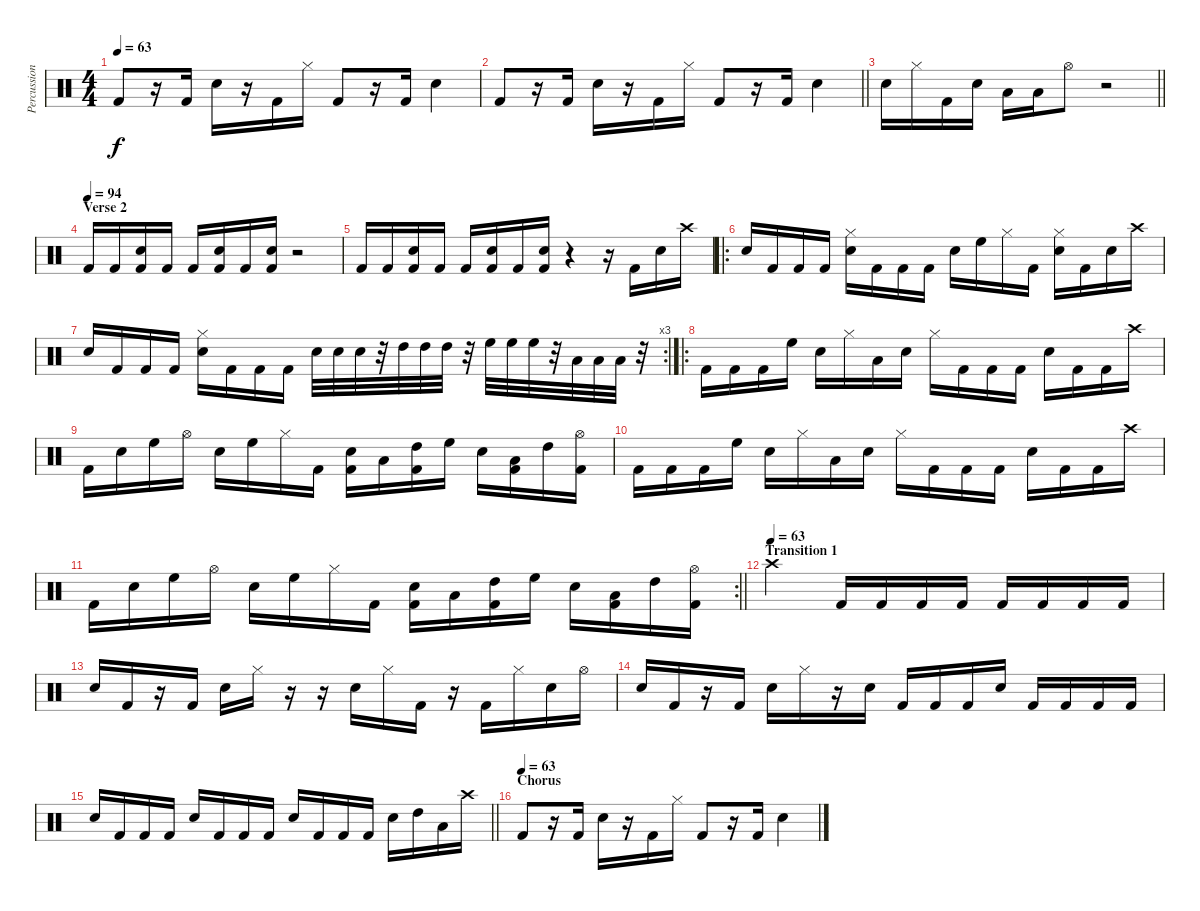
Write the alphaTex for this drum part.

\track ("Percussion" "Percussion") {instrument percussion}
\staff {score}
\articulation defaults
\ts (4 4)
\tempo 63
\clef neutral
\ks c "Kick (hit) 2".8{dy f}
r.16 "Kick (hit) 2".16 "Snare (hit) 2".16 r.16 "Kick (hit) 2".16 "Hi-Hat (closed)".16 "Kick (hit) 2".8 r.16 "Kick (hit) 2".16 "Snare (hit) 2".4 |
\barLineRight lightlight "Kick (hit) 2".8
r.16 "Kick (hit) 2".16 "Snare (hit) 2".16 r.16 "Kick (hit) 2".16 "Hi-Hat (closed)".16 "Kick (hit) 2".8 r.16 "Kick (hit) 2".16 "Snare (hit) 2".4 |
\barLineRight lightlight "Snare (hit) 2".16 "Hi-Hat (closed)".16 "Kick (hit) 2".16 "Snare (hit) 2".16 "Low Tom (hit)".16 "Low Tom (hit)".16 "Hi-Hat (open)".8
r.2 |
\section ("" "Verse 2")
\tempo (94)
"Kick (hit) 2".16 "Kick (hit) 2".16 ("Snare (hit) 2" "Kick (hit) 2").16 "Kick (hit) 2".16 "Kick (hit) 2".16 ("Snare (hit) 2" "Kick (hit) 2").16 "Kick (hit) 2".16 ("Snare (hit) 2" "Kick (hit) 2").16 r.2 |
"Kick (hit) 2".16 "Kick (hit) 2".16 ("Snare (hit) 2" "Kick (hit) 2").16 "Kick (hit) 2".16 "Kick (hit) 2".16 ("Snare (hit) 2" "Kick (hit) 2").16 "Kick (hit) 2".16 ("Snare (hit) 2" "Kick (hit) 2").16 r.4 r.16 "Kick (hit) 2".16 "Snare (hit) 2".16 "Crash high (hit)".16 |
\ro "Snare (hit) 2".16 "Kick (hit) 2".16 "Kick (hit) 2".16 "Kick (hit) 2".16
("Hi-Hat (closed)" "Snare (hit) 2").16 "Kick (hit) 2".16 "Kick (hit) 2".16 "Kick (hit) 2".16 "Snare (hit) 2".16 "High Floor Tom (hit)".16 "Hi-Hat (closed)".16 "Kick (hit) 2".16 ("Hi-Hat (closed)" "Snare (hit) 2").16 "Kick (hit) 2".16 "Snare (hit) 2".16 "Crash high (hit)".16 |
\rc 3 "Snare (hit) 2".16 "Kick (hit) 2".16 "Kick (hit) 2".16 "Kick (hit) 2".16
("Hi-Hat (closed)" "Snare (hit) 2").16 "Kick (hit) 2".16 "Kick (hit) 2".16 "Kick (hit) 2".16 "Snare (hit) 2".32 "Snare (hit) 2".32 "Snare (hit) 2".32 r.32 "High Tom (hit)".32 "High Tom (hit)".32 "High Tom (hit)".32 r.32 "High Floor Tom (hit)".32 "High Floor Tom (hit)".32 "High Floor Tom (hit)".32 r.32 "Low Tom (hit)".32 "Low Tom (hit)".32 "Low Tom (hit)".32 r.32 |
\ro "Kick (hit) 2".16 "Kick (hit) 2".16 "Kick (hit) 2".16 "High Floor Tom (hit)".16 "Snare (hit) 2".16 "Hi-Hat (closed)".16 "Low Tom (hit)".16 "Snare (hit) 2".16 "Hi-Hat (closed)".16 "Kick (hit) 2".16 "Kick (hit) 2".16 "Kick (hit) 2".16 "Snare (hit) 2".16 "Kick (hit) 2".16 "Kick (hit) 2".16 "Crash high (hit)".16
|
"Kick (hit) 2".16 "Snare (hit) 2".16 "High Floor Tom (hit)".16 "Hi-Hat (open)".16 "Snare (hit) 2".16 "High Floor Tom (hit)".16 "Hi-Hat (closed)".16 "Kick (hit) 2".16 ("Snare (hit) 2" "Kick (hit) 2").16 "Low Tom (hit)".16 ("High Tom (hit)" "Kick (hit) 2").16 "High Floor Tom (hit)".16 "Snare (hit) 2".16 ("Low Tom (hit)" "Kick (hit) 2").16 "High Tom (hit)".16 ("Hi-Hat (open)" "Kick (hit) 2").16 |
"Kick (hit) 2".16 "Kick (hit) 2".16 "Kick (hit) 2".16 "High Floor Tom (hit)".16 "Snare (hit) 2".16 "Hi-Hat (closed)".16 "Low Tom (hit)".16 "Snare (hit) 2".16 "Hi-Hat (closed)".16 "Kick (hit) 2".16 "Kick (hit) 2".16 "Kick (hit) 2".16 "Snare (hit) 2".16 "Kick (hit) 2".16 "Kick (hit) 2".16 "Crash high (hit)".16 |
\rc 2
\barLineRight lightlight "Kick (hit) 2".16 "Snare (hit) 2".16 "High Floor Tom (hit)".16 "Hi-Hat (open)".16 "Snare (hit) 2".16 "High Floor Tom (hit)".16 "Hi-Hat (closed)".16 "Kick (hit) 2".16
("Snare (hit) 2" "Kick (hit) 2").16 "Low Tom (hit)".16 ("High Tom (hit)" "Kick (hit) 2").16 "High Floor Tom (hit)".16 "Snare (hit) 2".16 ("Low Tom (hit)" "Kick (hit) 2").16 "High Tom (hit)".16 ("Hi-Hat (open)" "Kick (hit) 2").16 |
\section ("" "Transition 1")
\tempo (63)
"Crash high (hit)".2 "Kick (hit) 2".16 "Kick (hit) 2".16 "Kick (hit) 2".16 "Kick (hit) 2".16 "Kick (hit) 2".16 "Kick (hit) 2".16 "Kick (hit) 2".16 "Kick (hit) 2".16 |
"Snare (hit) 2".16 "Kick (hit) 2".16 r.16 "Kick (hit) 2".16 "Snare (hit) 2".16 "Hi-Hat (closed)".16 r.16 r.16 "Snare (hit) 2".16 "Hi-Hat (closed)".16 "Kick (hit) 2".16 r.16 "Kick (hit) 2".16 "Hi-Hat (closed)".16 "Snare (hit) 2".16 "Hi-Hat (open)".16 |
"Snare (hit) 2".16 "Kick (hit) 2".16 r.16 "Kick (hit) 2".16 "Snare (hit) 2".16 "Hi-Hat (closed)".16 r.16 "Snare (hit) 2".16 "Kick (hit) 2".16 "Kick (hit) 2".16 "Kick (hit) 2".16 "Snare (hit) 2".16 "Kick (hit) 2".16 "Kick (hit) 2".16 "Kick (hit) 2".16 "Kick (hit) 2".16 |
\barLineRight lightlight "Snare (hit) 2".16 "Kick (hit) 2".16 "Kick (hit) 2".16 "Kick (hit) 2".16 "Snare (hit) 2".16 "Kick (hit) 2".16 "Kick (hit) 2".16 "Kick (hit) 2".16 "Snare (hit) 2".16 "Kick (hit) 2".16 "Kick (hit) 2".16 "Kick (hit) 2".16 "Snare (hit) 2".16 "High Tom (hit)".16 "Low Tom (hit)".16 "Crash high (hit)".16
|
\section ("" "Chorus")
\tempo (63)
"Kick (hit) 2".8 r.16 "Kick (hit) 2".16 "Snare (hit) 2".16 r.16 "Kick (hit) 2".16 "Hi-Hat (closed)".16 "Kick (hit) 2".8 r.16 "Kick (hit) 2".16 "Snare (hit) 2".4
